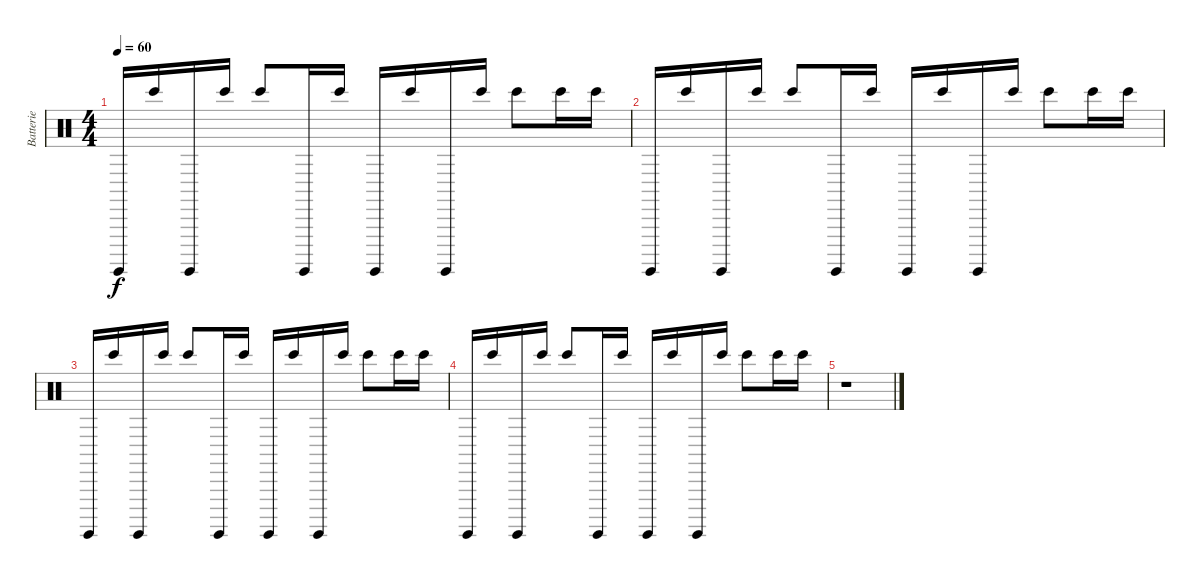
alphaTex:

\track ("Batterie" "Batterie") {instrument percussion}
\staff {score}
\articulation defaults
\ts (4 4)
\tempo 60
\clef neutral
\ks c "Surdo (hit)".16{dy f} "Bongo High (hit)".16 "Surdo (hit)".16 "Bongo High (hit)".16 "Bongo High (hit)".8 "Surdo (hit)".16 "Bongo High (hit)".16 "Surdo (hit)".16 "Bongo High (hit)".16 "Surdo (hit)".16 "Bongo High (hit)".16 "Bongo High (hit)".8 "Bongo High (hit)".16 "Bongo High (hit)".16
|
"Surdo (hit)".16{volume 12} "Bongo High (hit)".16 "Surdo (hit)".16 "Bongo High (hit)".16 "Bongo High (hit)".8 "Surdo (hit)".16 "Bongo High (hit)".16 "Surdo (hit)".16 "Bongo High (hit)".16 "Surdo (hit)".16 "Bongo High (hit)".16 "Bongo High (hit)".8 "Bongo High (hit)".16 "Bongo High (hit)".16 |
"Surdo (hit)".16 "Bongo High (hit)".16 "Surdo (hit)".16 "Bongo High (hit)".16 "Bongo High (hit)".8 "Surdo (hit)".16 "Bongo High (hit)".16 "Surdo (hit)".16 "Bongo High (hit)".16 "Surdo (hit)".16 "Bongo High (hit)".16 "Bongo High (hit)".8 "Bongo High (hit)".16 "Bongo High (hit)".16 |
"Surdo (hit)".16 "Bongo High (hit)".16 "Surdo (hit)".16 "Bongo High (hit)".16 "Bongo High (hit)".8 "Surdo (hit)".16 "Bongo High (hit)".16 "Surdo (hit)".16 "Bongo High (hit)".16 "Surdo (hit)".16 "Bongo High (hit)".16 "Bongo High (hit)".8 "Bongo High (hit)".16 "Bongo High (hit)".16 |
r.1
